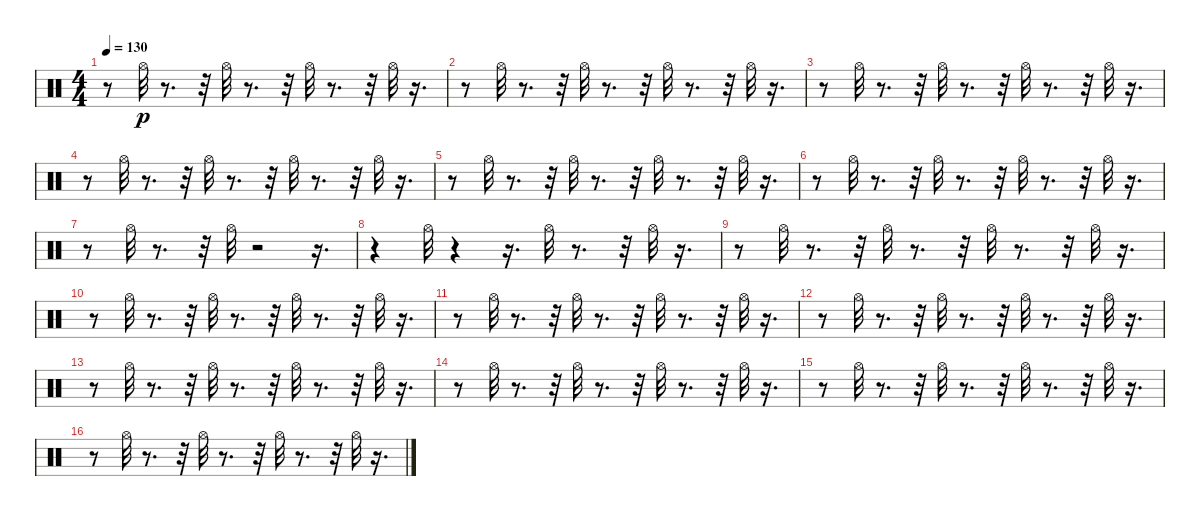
\track "" {instrument percussion}
\staff {score}
\articulation defaults
\ts (4 4)
\tempo 130
\clef neutral
\ks c
r.8{dy p} "Hi-Hat (open)".32 r.8{d} r.32 "Hi-Hat (open)".32 r.8{d} r.32 "Hi-Hat (open)".32 r.8{d} r.32 "Hi-Hat (open)".32 r.16{d} |
r.8 "Hi-Hat (open)".32 r.8{d} r.32 "Hi-Hat (open)".32 r.8{d} r.32 "Hi-Hat (open)".32 r.8{d} r.32 "Hi-Hat (open)".32 r.16{d} |
r.8 "Hi-Hat (open)".32 r.8{d} r.32 "Hi-Hat (open)".32 r.8{d} r.32 "Hi-Hat (open)".32 r.8{d} r.32 "Hi-Hat (open)".32 r.16{d} |
r.8 "Hi-Hat (open)".32 r.8{d} r.32 "Hi-Hat (open)".32 r.8{d} r.32 "Hi-Hat (open)".32 r.8{d} r.32 "Hi-Hat (open)".32 r.16{d} |
r.8 "Hi-Hat (open)".32 r.8{d} r.32 "Hi-Hat (open)".32 r.8{d} r.32 "Hi-Hat (open)".32 r.8{d} r.32 "Hi-Hat (open)".32 r.16{d} |
r.8 "Hi-Hat (open)".32 r.8{d} r.32 "Hi-Hat (open)".32 r.8{d} r.32 "Hi-Hat (open)".32 r.8{d} r.32 "Hi-Hat (open)".32 r.16{d} |
r.8 "Hi-Hat (open)".32 r.8{d} r.32 "Hi-Hat (open)".32 r.2 r.16{d} |
r.4 "Hi-Hat (open)".32 r.4 r.16{d} "Hi-Hat (open)".32 r.8{d} r.32 "Hi-Hat (open)".32 r.16{d} |
r.8 "Hi-Hat (open)".32 r.8{d} r.32 "Hi-Hat (open)".32 r.8{d} r.32 "Hi-Hat (open)".32 r.8{d} r.32 "Hi-Hat (open)".32 r.16{d} |
r.8 "Hi-Hat (open)".32 r.8{d} r.32 "Hi-Hat (open)".32 r.8{d} r.32 "Hi-Hat (open)".32 r.8{d} r.32 "Hi-Hat (open)".32 r.16{d} |
r.8 "Hi-Hat (open)".32 r.8{d} r.32 "Hi-Hat (open)".32 r.8{d} r.32 "Hi-Hat (open)".32 r.8{d} r.32 "Hi-Hat (open)".32 r.16{d} |
r.8 "Hi-Hat (open)".32 r.8{d} r.32 "Hi-Hat (open)".32 r.8{d} r.32 "Hi-Hat (open)".32 r.8{d} r.32 "Hi-Hat (open)".32 r.16{d} |
r.8 "Hi-Hat (open)".32 r.8{d} r.32 "Hi-Hat (open)".32 r.8{d} r.32 "Hi-Hat (open)".32 r.8{d} r.32 "Hi-Hat (open)".32 r.16{d} |
r.8 "Hi-Hat (open)".32 r.8{d} r.32 "Hi-Hat (open)".32 r.8{d} r.32 "Hi-Hat (open)".32 r.8{d} r.32 "Hi-Hat (open)".32 r.16{d} |
r.8 "Hi-Hat (open)".32 r.8{d} r.32 "Hi-Hat (open)".32 r.8{d} r.32 "Hi-Hat (open)".32 r.8{d} r.32 "Hi-Hat (open)".32 r.16{d} |
r.8 "Hi-Hat (open)".32 r.8{d} r.32 "Hi-Hat (open)".32 r.8{d} r.32 "Hi-Hat (open)".32 r.8{d} r.32 "Hi-Hat (open)".32 r.16{d}
